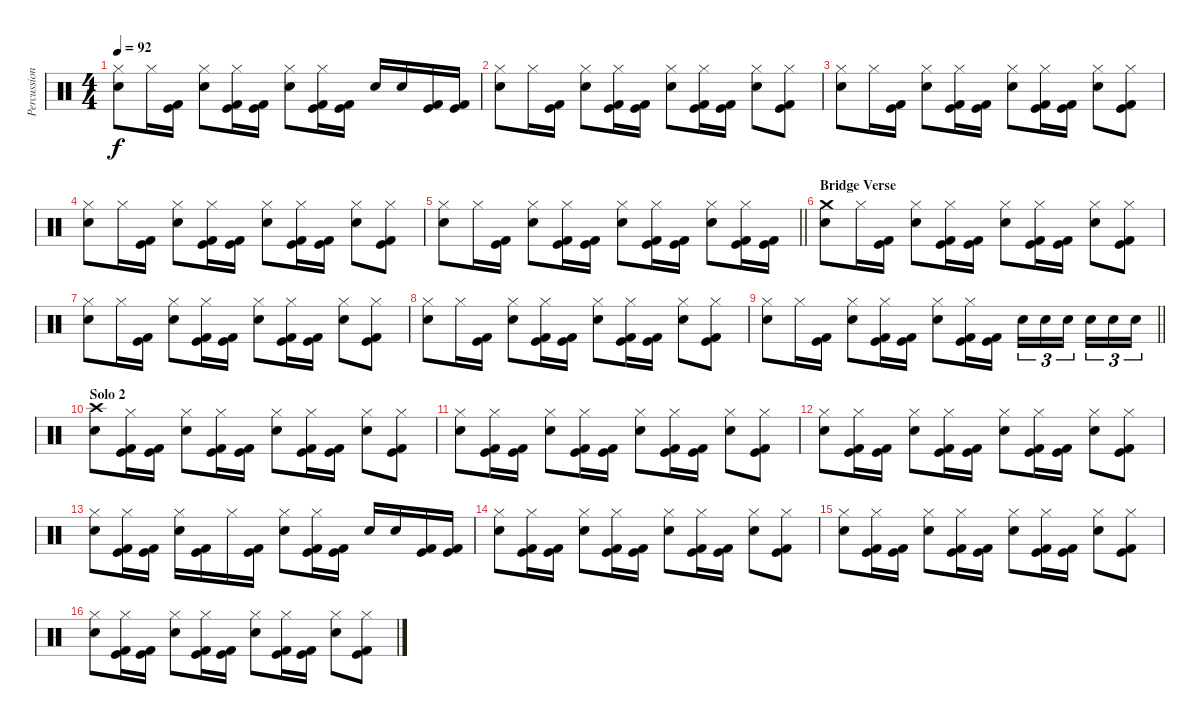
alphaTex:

\track ("Percussion" "Percussion") {instrument percussion}
\staff {score}
\articulation defaults
\ts (4 4)
\tempo 92
\clef neutral
\ks c
("Hi-Hat (closed)" "Electric Snare (hit)").8{dy f} "Hi-Hat (closed)".16 ("Kick (hit)" "Kick (hit) 2").16 ("Hi-Hat (closed)" "Electric Snare (hit)").8 ("Hi-Hat (closed)" "Kick (hit)" "Kick (hit) 2").16 ("Kick (hit)" "Kick (hit) 2").16 ("Hi-Hat (closed)" "Electric Snare (hit)").8 ("Hi-Hat (closed)" "Kick (hit)" "Kick (hit) 2").16 ("Kick (hit)" "Kick (hit) 2").16 "Electric Snare (hit)".16 "Electric Snare (hit)".16 ("Kick (hit)" "Kick (hit) 2").16 ("Kick (hit)" "Kick (hit) 2").16 |
("Hi-Hat (closed)" "Electric Snare (hit)").8 "Hi-Hat (closed)".16 ("Kick (hit)" "Kick (hit) 2").16 ("Hi-Hat (closed)" "Electric Snare (hit)").8 ("Hi-Hat (closed)" "Kick (hit)" "Kick (hit) 2").16 ("Kick (hit)" "Kick (hit) 2").16 ("Hi-Hat (closed)" "Electric Snare (hit)").8 ("Hi-Hat (closed)" "Kick (hit)" "Kick (hit) 2").16 ("Kick (hit)" "Kick (hit) 2").16 ("Hi-Hat (closed)" "Electric Snare (hit)").8 ("Hi-Hat (closed)" "Kick (hit)" "Kick (hit) 2").8 |
("Hi-Hat (closed)" "Electric Snare (hit)").8 "Hi-Hat (closed)".16 ("Kick (hit)" "Kick (hit) 2").16 ("Hi-Hat (closed)" "Electric Snare (hit)").8 ("Hi-Hat (closed)" "Kick (hit)" "Kick (hit) 2").16 ("Kick (hit)" "Kick (hit) 2").16 ("Hi-Hat (closed)" "Electric Snare (hit)").8 ("Hi-Hat (closed)" "Kick (hit)" "Kick (hit) 2").16 ("Kick (hit)" "Kick (hit) 2").16 ("Hi-Hat (closed)" "Electric Snare (hit)").8 ("Hi-Hat (closed)" "Kick (hit)" "Kick (hit) 2").8 |
("Hi-Hat (closed)" "Electric Snare (hit)").8 "Hi-Hat (closed)".16 ("Kick (hit)" "Kick (hit) 2").16 ("Hi-Hat (closed)" "Electric Snare (hit)").8 ("Hi-Hat (closed)" "Kick (hit)" "Kick (hit) 2").16 ("Kick (hit)" "Kick (hit) 2").16 ("Hi-Hat (closed)" "Electric Snare (hit)").8 ("Hi-Hat (closed)" "Kick (hit)" "Kick (hit) 2").16 ("Kick (hit)" "Kick (hit) 2").16 ("Hi-Hat (closed)" "Electric Snare (hit)").8 ("Hi-Hat (closed)" "Kick (hit)" "Kick (hit) 2").8 |
\barLineRight lightlight
("Hi-Hat (closed)" "Electric Snare (hit)").8 "Hi-Hat (closed)".16 ("Kick (hit)" "Kick (hit) 2").16 ("Hi-Hat (closed)" "Electric Snare (hit)").8 ("Hi-Hat (closed)" "Kick (hit)" "Kick (hit) 2").16 ("Kick (hit)" "Kick (hit) 2").16 ("Hi-Hat (closed)" "Electric Snare (hit)").8 ("Hi-Hat (closed)" "Kick (hit)" "Kick (hit) 2").16 ("Kick (hit)" "Kick (hit) 2").16 ("Hi-Hat (closed)" "Electric Snare (hit)").8 ("Hi-Hat (closed)" "Kick (hit)" "Kick (hit) 2").16 ("Kick (hit)" "Kick (hit) 2").16 |
\section ("" "Bridge Verse")
("Crash medium (hit)" "Electric Snare (hit)").8 "Hi-Hat (closed)".16 ("Kick (hit)" "Kick (hit) 2").16 ("Hi-Hat (closed)" "Electric Snare (hit)").8 ("Hi-Hat (closed)" "Kick (hit)" "Kick (hit) 2").16 ("Kick (hit)" "Kick (hit) 2").16 ("Hi-Hat (closed)" "Electric Snare (hit)").8 ("Hi-Hat (closed)" "Kick (hit)" "Kick (hit) 2").16 ("Kick (hit)" "Kick (hit) 2").16 ("Hi-Hat (closed)" "Electric Snare (hit)").8 ("Hi-Hat (closed)" "Kick (hit)" "Kick (hit) 2").8 |
("Hi-Hat (closed)" "Electric Snare (hit)").8 "Hi-Hat (closed)".16 ("Kick (hit)" "Kick (hit) 2").16 ("Hi-Hat (closed)" "Electric Snare (hit)").8 ("Hi-Hat (closed)" "Kick (hit)" "Kick (hit) 2").16 ("Kick (hit)" "Kick (hit) 2").16 ("Hi-Hat (closed)" "Electric Snare (hit)").8 ("Hi-Hat (closed)" "Kick (hit)" "Kick (hit) 2").16 ("Kick (hit)" "Kick (hit) 2").16 ("Hi-Hat (closed)" "Electric Snare (hit)").8 ("Hi-Hat (closed)" "Kick (hit)" "Kick (hit) 2").8 |
("Hi-Hat (closed)" "Electric Snare (hit)").8 "Hi-Hat (closed)".16 ("Kick (hit)" "Kick (hit) 2").16 ("Hi-Hat (closed)" "Electric Snare (hit)").8 ("Hi-Hat (closed)" "Kick (hit)" "Kick (hit) 2").16 ("Kick (hit)" "Kick (hit) 2").16 ("Hi-Hat (closed)" "Electric Snare (hit)").8 ("Hi-Hat (closed)" "Kick (hit)" "Kick (hit) 2").16 ("Kick (hit)" "Kick (hit) 2").16 ("Hi-Hat (closed)" "Electric Snare (hit)").8 ("Hi-Hat (closed)" "Kick (hit)" "Kick (hit) 2").8 |
\barLineRight lightlight
("Hi-Hat (closed)" "Electric Snare (hit)").8 "Hi-Hat (closed)".16 ("Kick (hit)" "Kick (hit) 2").16 ("Hi-Hat (closed)" "Electric Snare (hit)").8 ("Hi-Hat (closed)" "Kick (hit)" "Kick (hit) 2").16 ("Kick (hit)" "Kick (hit) 2").16 ("Hi-Hat (closed)" "Electric Snare (hit)").8 ("Hi-Hat (closed)" "Kick (hit)" "Kick (hit) 2").16 ("Kick (hit)" "Kick (hit) 2").16 "Electric Snare (hit)".16{tu (3 2)} "Electric Snare (hit)".16{tu (3 2)} "Electric Snare (hit)".16{tu (3 2) beam splitsecondary} "Electric Snare (hit)".16{tu (3 2)} "Electric Snare (hit)".16{tu (3 2)} "Electric Snare (hit)".16{tu (3 2)} |
\section ("" "Solo 2")
("Crash high (hit)" "Electric Snare (hit)").8 ("Hi-Hat (closed)" "Kick (hit)" "Kick (hit) 2").16 ("Kick (hit)" "Kick (hit) 2").16 ("Hi-Hat (closed)" "Electric Snare (hit)").8 ("Hi-Hat (closed)" "Kick (hit)" "Kick (hit) 2").16 ("Kick (hit)" "Kick (hit) 2").16 ("Hi-Hat (closed)" "Electric Snare (hit)").8 ("Hi-Hat (closed)" "Kick (hit)" "Kick (hit) 2").16 ("Kick (hit)" "Kick (hit) 2").16 ("Hi-Hat (closed)" "Electric Snare (hit)").8 ("Hi-Hat (closed)" "Kick (hit)" "Kick (hit) 2").8 |
("Hi-Hat (closed)" "Electric Snare (hit)").8 ("Hi-Hat (closed)" "Kick (hit)" "Kick (hit) 2").16 ("Kick (hit)" "Kick (hit) 2").16 ("Hi-Hat (closed)" "Electric Snare (hit)").8 ("Hi-Hat (closed)" "Kick (hit)" "Kick (hit) 2").16 ("Kick (hit)" "Kick (hit) 2").16 ("Hi-Hat (closed)" "Electric Snare (hit)").8 ("Hi-Hat (closed)" "Kick (hit)" "Kick (hit) 2").16 ("Kick (hit)" "Kick (hit) 2").16 ("Hi-Hat (closed)" "Electric Snare (hit)").8 ("Hi-Hat (closed)" "Kick (hit)" "Kick (hit) 2").8 |
("Hi-Hat (closed)" "Electric Snare (hit)").8 ("Hi-Hat (closed)" "Kick (hit)" "Kick (hit) 2").16 ("Kick (hit)" "Kick (hit) 2").16 ("Hi-Hat (closed)" "Electric Snare (hit)").8 ("Hi-Hat (closed)" "Kick (hit)" "Kick (hit) 2").16 ("Kick (hit)" "Kick (hit) 2").16 ("Hi-Hat (closed)" "Electric Snare (hit)").8 ("Hi-Hat (closed)" "Kick (hit)" "Kick (hit) 2").16 ("Kick (hit)" "Kick (hit) 2").16 ("Hi-Hat (closed)" "Electric Snare (hit)").8 ("Hi-Hat (closed)" "Kick (hit)" "Kick (hit) 2").8 |
("Hi-Hat (closed)" "Electric Snare (hit)").8 ("Hi-Hat (closed)" "Kick (hit)" "Kick (hit) 2").16 ("Kick (hit)" "Kick (hit) 2").16 ("Hi-Hat (closed)" "Electric Snare (hit)").16 ("Kick (hit)" "Kick (hit) 2").16 "Hi-Hat (closed)".16 ("Kick (hit)" "Kick (hit) 2").16 ("Hi-Hat (closed)" "Electric Snare (hit)").8 ("Hi-Hat (closed)" "Kick (hit)" "Kick (hit) 2").16 ("Kick (hit)" "Kick (hit) 2").16 "Electric Snare (hit)".16 "Electric Snare (hit)".16 ("Kick (hit)" "Kick (hit) 2").16 ("Kick (hit)" "Kick (hit) 2").16 |
("Hi-Hat (closed)" "Electric Snare (hit)").8 ("Hi-Hat (closed)" "Kick (hit)" "Kick (hit) 2").16 ("Kick (hit)" "Kick (hit) 2").16 ("Hi-Hat (closed)" "Electric Snare (hit)").8 ("Hi-Hat (closed)" "Kick (hit)" "Kick (hit) 2").16 ("Kick (hit)" "Kick (hit) 2").16 ("Hi-Hat (closed)" "Electric Snare (hit)").8 ("Hi-Hat (closed)" "Kick (hit)" "Kick (hit) 2").16 ("Kick (hit)" "Kick (hit) 2").16 ("Hi-Hat (closed)" "Electric Snare (hit)").8 ("Hi-Hat (closed)" "Kick (hit)" "Kick (hit) 2").8 |
("Hi-Hat (closed)" "Electric Snare (hit)").8 ("Hi-Hat (closed)" "Kick (hit)" "Kick (hit) 2").16 ("Kick (hit)" "Kick (hit) 2").16 ("Hi-Hat (closed)" "Electric Snare (hit)").8 ("Hi-Hat (closed)" "Kick (hit)" "Kick (hit) 2").16 ("Kick (hit)" "Kick (hit) 2").16 ("Hi-Hat (closed)" "Electric Snare (hit)").8 ("Hi-Hat (closed)" "Kick (hit)" "Kick (hit) 2").16 ("Kick (hit)" "Kick (hit) 2").16 ("Hi-Hat (closed)" "Electric Snare (hit)").8 ("Hi-Hat (closed)" "Kick (hit)" "Kick (hit) 2").8 |
("Hi-Hat (closed)" "Electric Snare (hit)").8 ("Hi-Hat (closed)" "Kick (hit)" "Kick (hit) 2").16 ("Kick (hit)" "Kick (hit) 2").16 ("Hi-Hat (closed)" "Electric Snare (hit)").8 ("Hi-Hat (closed)" "Kick (hit)" "Kick (hit) 2").16 ("Kick (hit)" "Kick (hit) 2").16 ("Hi-Hat (closed)" "Electric Snare (hit)").8 ("Hi-Hat (closed)" "Kick (hit)" "Kick (hit) 2").16 ("Kick (hit)" "Kick (hit) 2").16 ("Hi-Hat (closed)" "Electric Snare (hit)").8 ("Hi-Hat (closed)" "Kick (hit)" "Kick (hit) 2").8
